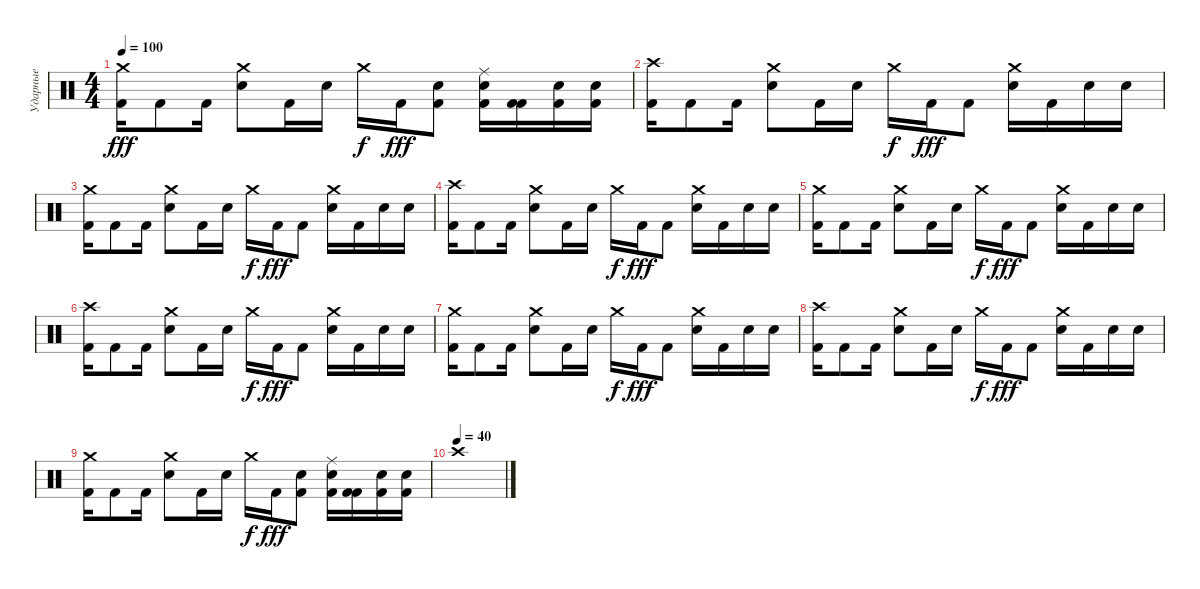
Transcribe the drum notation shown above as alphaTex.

\track ("Ударные" "Ударные") {instrument percussion}
\staff {score}
\articulation defaults
\ts (4 4)
\tempo 100
\clef neutral
\ks c
("Kick (hit) 2" "Crash medium (hit)").16{dy fff} "Kick (hit) 2".8 "Kick (hit) 2".16 ("Snare (hit) 2" "Crash medium (hit)").8 "Kick (hit) 2".16 "Snare (hit) 2".16 "Crash medium (hit)".16{dy f} "Kick (hit) 2".16{dy fff} ("Kick (hit) 2" "Snare (hit) 2").8 ("Snare (hit) 2" "Kick (hit) 2" "Ride (middle)").16 ("Kick (hit) 2" "Kick (hit) 2").16 ("Snare (hit) 2" "Kick (hit) 2").16 ("Snare (hit) 2" "Kick (hit) 2").16 |
("Kick (hit) 2" "Crash high (hit)").16 "Kick (hit) 2".8 "Kick (hit) 2".16 ("Snare (hit) 2" "Crash medium (hit)").8 "Kick (hit) 2".16 "Snare (hit) 2".16 "Crash medium (hit)".16{dy f} "Kick (hit) 2".16{dy fff} "Kick (hit) 2".8 ("Snare (hit) 2" "Crash medium (hit)").16 "Kick (hit) 2".16 "Snare (hit) 2".16 "Snare (hit) 2".16 |
("Kick (hit) 2" "Crash medium (hit)").16 "Kick (hit) 2".8 "Kick (hit) 2".16 ("Snare (hit) 2" "Crash medium (hit)").8 "Kick (hit) 2".16 "Snare (hit) 2".16 "Crash medium (hit)".16{dy f} "Kick (hit) 2".16{dy fff} "Kick (hit) 2".8 ("Snare (hit) 2" "Crash medium (hit)").16 "Kick (hit) 2".16 "Snare (hit) 2".16 "Snare (hit) 2".16 |
("Kick (hit) 2" "Crash high (hit)").16 "Kick (hit) 2".8 "Kick (hit) 2".16 ("Snare (hit) 2" "Crash medium (hit)").8 "Kick (hit) 2".16 "Snare (hit) 2".16 "Crash medium (hit)".16{dy f} "Kick (hit) 2".16{dy fff} "Kick (hit) 2".8 ("Snare (hit) 2" "Crash medium (hit)").16 "Kick (hit) 2".16 "Snare (hit) 2".16 "Snare (hit) 2".16 |
("Kick (hit) 2" "Crash medium (hit)").16 "Kick (hit) 2".8 "Kick (hit) 2".16 ("Snare (hit) 2" "Crash medium (hit)").8 "Kick (hit) 2".16 "Snare (hit) 2".16 "Crash medium (hit)".16{dy f} "Kick (hit) 2".16{dy fff} "Kick (hit) 2".8 ("Snare (hit) 2" "Crash medium (hit)").16 "Kick (hit) 2".16 "Snare (hit) 2".16 "Snare (hit) 2".16 |
("Kick (hit) 2" "Crash high (hit)").16 "Kick (hit) 2".8 "Kick (hit) 2".16 ("Snare (hit) 2" "Crash medium (hit)").8 "Kick (hit) 2".16 "Snare (hit) 2".16 "Crash medium (hit)".16{dy f} "Kick (hit) 2".16{dy fff} "Kick (hit) 2".8 ("Snare (hit) 2" "Crash medium (hit)").16 "Kick (hit) 2".16 "Snare (hit) 2".16 "Snare (hit) 2".16 |
("Kick (hit) 2" "Crash medium (hit)").16 "Kick (hit) 2".8 "Kick (hit) 2".16 ("Snare (hit) 2" "Crash medium (hit)").8 "Kick (hit) 2".16 "Snare (hit) 2".16 "Crash medium (hit)".16{dy f} "Kick (hit) 2".16{dy fff} "Kick (hit) 2".8 ("Snare (hit) 2" "Crash medium (hit)").16 "Kick (hit) 2".16 "Snare (hit) 2".16 "Snare (hit) 2".16 |
("Kick (hit) 2" "Crash high (hit)").16 "Kick (hit) 2".8 "Kick (hit) 2".16 ("Snare (hit) 2" "Crash medium (hit)").8 "Kick (hit) 2".16 "Snare (hit) 2".16 "Crash medium (hit)".16{dy f} "Kick (hit) 2".16{dy fff} "Kick (hit) 2".8 ("Snare (hit) 2" "Crash medium (hit)").16 "Kick (hit) 2".16 "Snare (hit) 2".16 "Snare (hit) 2".16 |
("Kick (hit) 2" "Crash medium (hit)").16 "Kick (hit) 2".8 "Kick (hit) 2".16 ("Snare (hit) 2" "Crash medium (hit)").8 "Kick (hit) 2".16 "Snare (hit) 2".16 "Crash medium (hit)".16{dy f} "Kick (hit) 2".16{dy fff} ("Kick (hit) 2" "Snare (hit) 2").8 ("Snare (hit) 2" "Kick (hit) 2" "Ride (middle)").16 ("Kick (hit) 2" "Kick (hit) 2").16 ("Snare (hit) 2" "Kick (hit) 2").16 ("Snare (hit) 2" "Kick (hit) 2").16 |
\tempo (40)
"Crash high (hit)".1
